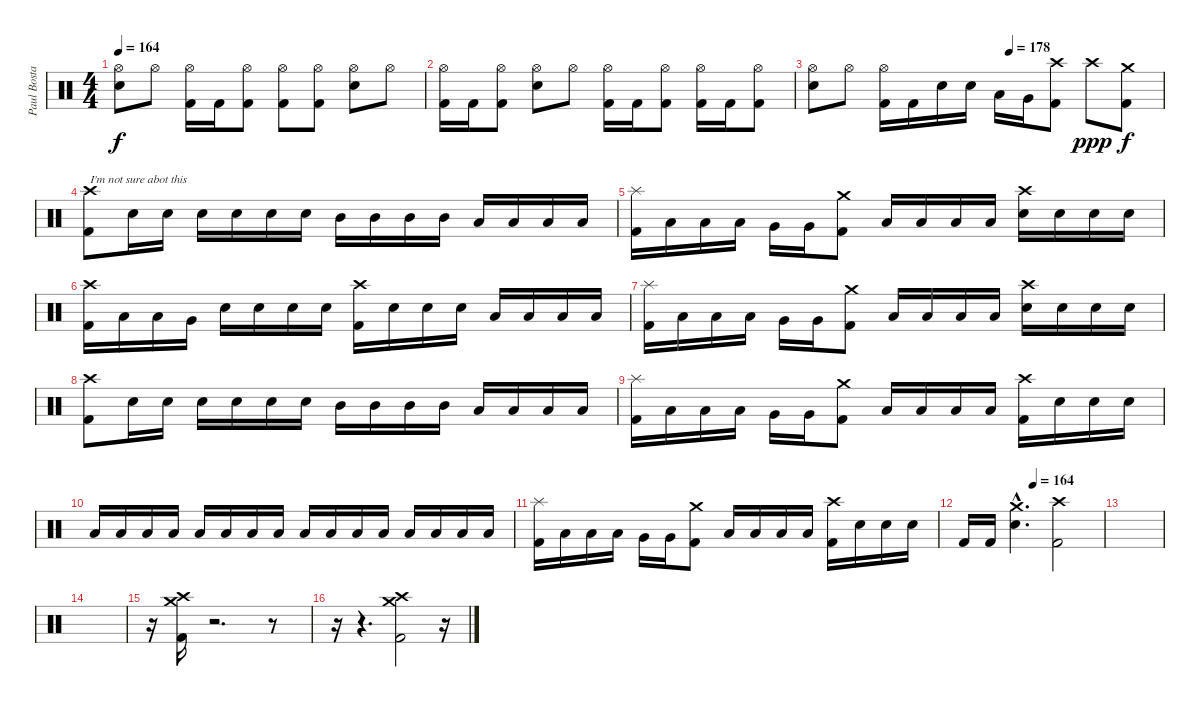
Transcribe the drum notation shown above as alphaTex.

\track ("Paul Bostaph" "Paul Bosta") {instrument percussion}
\staff {score}
\articulation defaults
\ts (4 4)
\tempo 164
\clef neutral
\ks c
("Electric Snare (hit)" "Hi-Hat (open)").8{dy f} "Hi-Hat (open)".8 ("Kick (hit) 2" "Hi-Hat (open)").16 "Kick (hit) 2".16 ("Kick (hit) 2" "Hi-Hat (open)").8 ("Kick (hit) 2" "Hi-Hat (open)").8 ("Kick (hit) 2" "Hi-Hat (open)").8 ("Electric Snare (hit)" "Hi-Hat (open)").8 "Hi-Hat (open)".8 |
("Hi-Hat (open)" "Kick (hit) 2").16 "Kick (hit) 2".16 ("Hi-Hat (open)" "Kick (hit) 2").8 ("Hi-Hat (open)" "Electric Snare (hit)").8 "Hi-Hat (open)".8 ("Hi-Hat (open)" "Kick (hit) 2").16 "Kick (hit) 2".16 ("Hi-Hat (open)" "Kick (hit) 2").8 ("Hi-Hat (open)" "Kick (hit) 2").16 "Kick (hit) 2".16 ("Hi-Hat (open)" "Kick (hit) 2").8 |
\tempo (178 0.5625)
("Electric Snare (hit)" "Hi-Hat (open)").8 "Hi-Hat (open)".8 ("Kick (hit) 2" "Hi-Hat (open)").16 "Kick (hit) 2".16 "Electric Snare (hit)".16 "Electric Snare (hit)".16 "Low Tom (hit)".16 "Very Low Tom (hit)".16 ("Crash high (hit)" "Kick (hit) 2").8 "Crash high (hit)".8{dy ppp} ("Crash medium (hit)" "Kick (hit) 2").8{dy f} |
("Crash high (hit)" "Kick (hit) 2").8{txt "I'm not sure abot this"} "Electric Snare (hit)".16 "Electric Snare (hit)".16 "Electric Snare (hit)".16 "Electric Snare (hit)".16 "Electric Snare (hit)".16 "Electric Snare (hit)".16 "Mid Tom (hit)".16 "Mid Tom (hit)".16 "Mid Tom (hit)".16 "Mid Tom (hit)".16 "Low Tom (hit)".16 "Low Tom (hit)".16 "Low Tom (hit)".16 "Low Tom (hit)".16 |
("Splash (hit)" "Kick (hit) 2").16 "Low Tom (hit)".16 "Low Tom (hit)".16 "Low Tom (hit)".16 "Very Low Tom (hit)".16 "Very Low Tom (hit)".16 ("Crash medium (hit)" "Kick (hit) 2").8 "Low Tom (hit)".16 "Low Tom (hit)".16 "Low Tom (hit)".16 "Low Tom (hit)".16 ("Crash high (hit)" "Electric Snare (hit)").16 "Electric Snare (hit)".16 "Electric Snare (hit)".16 "Electric Snare (hit)".16 |
("Crash high (hit)" "Kick (hit) 2").16 "Low Tom (hit)".16 "Low Tom (hit)".16 "Very Low Tom (hit)".16 "Electric Snare (hit)".16 "Electric Snare (hit)".16 "Electric Snare (hit)".16 "Electric Snare (hit)".16 ("Crash high (hit)" "Kick (hit) 2").16 "Electric Snare (hit)".16 "Electric Snare (hit)".16 "Electric Snare (hit)".16 "Low Tom (hit)".16 "Low Tom (hit)".16 "Low Tom (hit)".16 "Low Tom (hit)".16 |
("Splash (hit)" "Kick (hit) 2").16 "Low Tom (hit)".16 "Low Tom (hit)".16 "Low Tom (hit)".16 "Very Low Tom (hit)".16 "Very Low Tom (hit)".16 ("Crash medium (hit)" "Kick (hit) 2").8 "Low Tom (hit)".16 "Low Tom (hit)".16 "Low Tom (hit)".16 "Low Tom (hit)".16 ("Crash high (hit)" "Electric Snare (hit)").16 "Electric Snare (hit)".16 "Electric Snare (hit)".16 "Electric Snare (hit)".16 |
("Crash high (hit)" "Kick (hit) 2").8 "Electric Snare (hit)".16 "Electric Snare (hit)".16 "Electric Snare (hit)".16 "Electric Snare (hit)".16 "Electric Snare (hit)".16 "Electric Snare (hit)".16 "Mid Tom (hit)".16 "Mid Tom (hit)".16 "Mid Tom (hit)".16 "Mid Tom (hit)".16 "Low Tom (hit)".16 "Low Tom (hit)".16 "Low Tom (hit)".16 "Low Tom (hit)".16 |
("Splash (hit)" "Kick (hit) 2").16 "Low Tom (hit)".16 "Low Tom (hit)".16 "Low Tom (hit)".16 "Very Low Tom (hit)".16 "Very Low Tom (hit)".16 ("Crash medium (hit)" "Kick (hit) 2").8 "Low Tom (hit)".16 "Low Tom (hit)".16 "Low Tom (hit)".16 "Low Tom (hit)".16 ("Crash high (hit)" "Kick (hit) 2").16 "Electric Snare (hit)".16 "Electric Snare (hit)".16 "Electric Snare (hit)".16 |
"Low Floor Tom (hit)".16 "Low Floor Tom (hit)".16 "Low Floor Tom (hit)".16 "Low Floor Tom (hit)".16 "Low Floor Tom (hit)".16 "Low Floor Tom (hit)".16 "Low Floor Tom (hit)".16 "Low Floor Tom (hit)".16 "Low Floor Tom (hit)".16 "Low Floor Tom (hit)".16 "Low Floor Tom (hit)".16 "Low Floor Tom (hit)".16 "Low Floor Tom (hit)".16 "Low Floor Tom (hit)".16 "Low Floor Tom (hit)".16 "Low Floor Tom (hit)".16 |
("Splash (hit)" "Kick (hit) 2").16 "Low Tom (hit)".16 "Low Tom (hit)".16 "Low Tom (hit)".16 "Very Low Tom (hit)".16 "Very Low Tom (hit)".16 ("Crash medium (hit)" "Kick (hit) 2").8 "Low Tom (hit)".16 "Low Tom (hit)".16 "Low Tom (hit)".16 "Low Tom (hit)".16 ("Crash high (hit)" "Kick (hit) 2").16 "Electric Snare (hit)".16 "Electric Snare (hit)".16 "Electric Snare (hit)".16 |
\tempo (164 0.5)
"Kick (hit) 2".16 "Kick (hit) 2".16 ("Crash medium (hit)"{hac} "Electric Snare (hit)"{hac}).4{d} ("Crash high (hit)" "Kick (hit) 2").2 |
|
|
r.16 ("Crash high (hit)" "Crash medium (hit)" "Kick (hit) 2").16 r.2{d} r.8 |
r.16 r.4{d} ("Crash high (hit)" "Crash medium (hit)" "Kick (hit) 2").2 r.16
